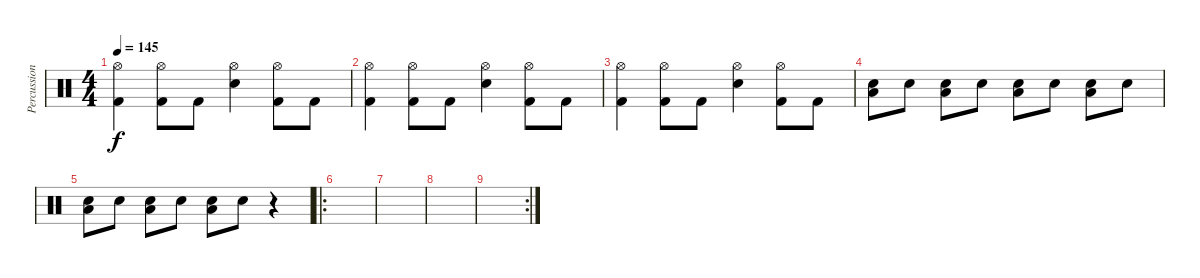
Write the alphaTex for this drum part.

\track ("Percussion" "Percussion") {instrument percussion}
\staff {score}
\articulation defaults
\ts (4 4)
\tempo 145
\clef neutral
\ks c
("Hi-Hat (open)" "Kick (hit) 2").4{dy f} ("Hi-Hat (open)" "Kick (hit) 2").8 "Kick (hit) 2".8 ("Hi-Hat (open)" "Electric Snare (hit)").4 ("Hi-Hat (open)" "Kick (hit) 2").8 "Kick (hit) 2".8 |
("Hi-Hat (open)" "Kick (hit) 2").4 ("Hi-Hat (open)" "Kick (hit) 2").8 "Kick (hit) 2".8 ("Hi-Hat (open)" "Electric Snare (hit)").4 ("Hi-Hat (open)" "Kick (hit) 2").8 "Kick (hit) 2".8 |
("Hi-Hat (open)" "Kick (hit) 2").4 ("Hi-Hat (open)" "Kick (hit) 2").8 "Kick (hit) 2".8 ("Hi-Hat (open)" "Electric Snare (hit)").4 ("Hi-Hat (open)" "Kick (hit) 2").8 "Kick (hit) 2".8 |
("Electric Snare (hit)" "Low Tom (hit)").8 "Electric Snare (hit)".8 ("Electric Snare (hit)" "Low Tom (hit)").8 "Electric Snare (hit)".8 ("Electric Snare (hit)" "Low Tom (hit)").8 "Electric Snare (hit)".8 ("Electric Snare (hit)" "Low Tom (hit)").8 "Electric Snare (hit)".8 |
("Electric Snare (hit)" "Low Tom (hit)").8 "Electric Snare (hit)".8 ("Electric Snare (hit)" "Low Tom (hit)").8 "Electric Snare (hit)".8 ("Electric Snare (hit)" "Low Tom (hit)").8 "Electric Snare (hit)".8 r.4 |
\ro
|
|
|
\rc 2
